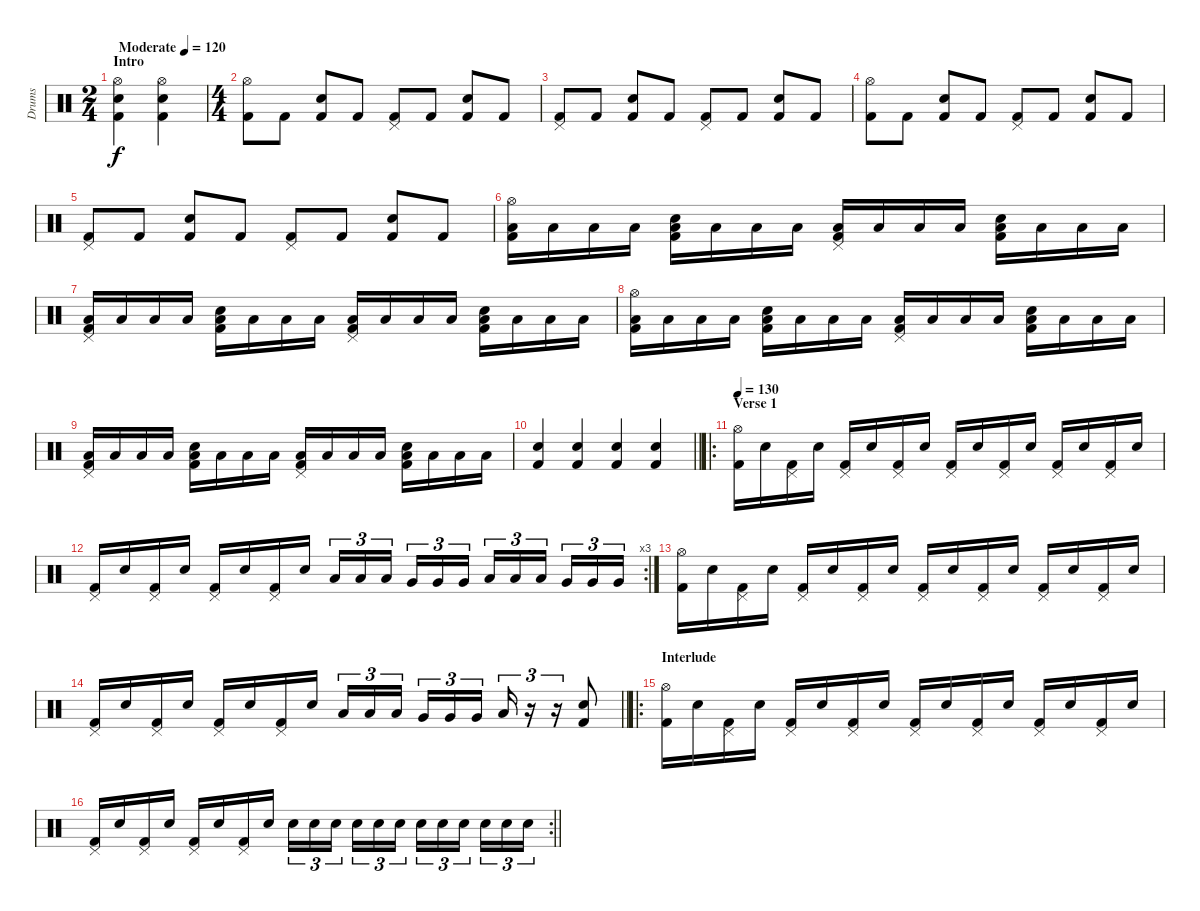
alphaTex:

\track ("Drums" "Drums") {instrument percussion}
\staff {score}
\articulation defaults
\ts (2 4)
\section ("" "Intro")
\tempo (120 "Moderate")
\clef neutral
\ks c
("Hi-Hat (open)" "Snare (hit) 2" "Kick (hit) 2").4{dy f} ("Hi-Hat (open)" "Snare (hit) 2" "Kick (hit) 2").4 |
\ts (4 4)
("Hi-Hat (open)" "Kick (hit) 2").8 "Kick (hit) 2".8 ("Snare (hit) 2" "Kick (hit) 2").8 "Kick (hit) 2".8 ("Pedal Hi-Hat (hit)" "Kick (hit) 2").8 "Kick (hit) 2".8 ("Snare (hit) 2" "Kick (hit) 2").8 "Kick (hit) 2".8 |
("Pedal Hi-Hat (hit)" "Kick (hit) 2").8 "Kick (hit) 2".8 ("Snare (hit) 2" "Kick (hit) 2").8 "Kick (hit) 2".8 ("Pedal Hi-Hat (hit)" "Kick (hit) 2").8 "Kick (hit) 2".8 ("Snare (hit) 2" "Kick (hit) 2").8 "Kick (hit) 2".8 |
("Hi-Hat (open)" "Kick (hit) 2").8 "Kick (hit) 2".8 ("Snare (hit) 2" "Kick (hit) 2").8 "Kick (hit) 2".8 ("Pedal Hi-Hat (hit)" "Kick (hit) 2").8 "Kick (hit) 2".8 ("Snare (hit) 2" "Kick (hit) 2").8 "Kick (hit) 2".8 |
("Pedal Hi-Hat (hit)" "Kick (hit) 2").8 "Kick (hit) 2".8 ("Snare (hit) 2" "Kick (hit) 2").8 "Kick (hit) 2".8 ("Pedal Hi-Hat (hit)" "Kick (hit) 2").8 "Kick (hit) 2".8 ("Snare (hit) 2" "Kick (hit) 2").8 "Kick (hit) 2".8 |
("Hi-Hat (open)" "Low Tom (hit)" "Kick (hit) 2").16 "Low Tom (hit)".16 "Low Tom (hit)".16 "Low Tom (hit)".16 ("Snare (hit) 2" "Low Tom (hit)" "Kick (hit) 2").16 "Low Tom (hit)".16 "Low Tom (hit)".16 "Low Tom (hit)".16 ("Pedal Hi-Hat (hit)" "Low Tom (hit)" "Kick (hit) 2").16 "Low Tom (hit)".16 "Low Tom (hit)".16 "Low Tom (hit)".16 ("Snare (hit) 2" "Low Tom (hit)" "Kick (hit) 2").16 "Low Tom (hit)".16 "Low Tom (hit)".16 "Low Tom (hit)".16 |
("Pedal Hi-Hat (hit)" "Low Tom (hit)" "Kick (hit) 2").16 "Low Tom (hit)".16 "Low Tom (hit)".16 "Low Tom (hit)".16 ("Snare (hit) 2" "Low Tom (hit)" "Kick (hit) 2").16 "Low Tom (hit)".16 "Low Tom (hit)".16 "Low Tom (hit)".16 ("Pedal Hi-Hat (hit)" "Low Tom (hit)" "Kick (hit) 2").16 "Low Tom (hit)".16 "Low Tom (hit)".16 "Low Tom (hit)".16 ("Snare (hit) 2" "Low Tom (hit)" "Kick (hit) 2").16 "Low Tom (hit)".16 "Low Tom (hit)".16 "Low Tom (hit)".16 |
("Hi-Hat (open)" "Low Tom (hit)" "Kick (hit) 2").16 "Low Tom (hit)".16 "Low Tom (hit)".16 "Low Tom (hit)".16 ("Snare (hit) 2" "Low Tom (hit)" "Kick (hit) 2").16 "Low Tom (hit)".16 "Low Tom (hit)".16 "Low Tom (hit)".16 ("Pedal Hi-Hat (hit)" "Low Tom (hit)" "Kick (hit) 2").16 "Low Tom (hit)".16 "Low Tom (hit)".16 "Low Tom (hit)".16 ("Snare (hit) 2" "Low Tom (hit)" "Kick (hit) 2").16 "Low Tom (hit)".16 "Low Tom (hit)".16 "Low Tom (hit)".16 |
("Pedal Hi-Hat (hit)" "Low Tom (hit)" "Kick (hit) 2").16 "Low Tom (hit)".16 "Low Tom (hit)".16 "Low Tom (hit)".16 ("Snare (hit) 2" "Low Tom (hit)" "Kick (hit) 2").16 "Low Tom (hit)".16 "Low Tom (hit)".16 "Low Tom (hit)".16 ("Pedal Hi-Hat (hit)" "Low Tom (hit)" "Kick (hit) 2").16 "Low Tom (hit)".16 "Low Tom (hit)".16 "Low Tom (hit)".16 ("Snare (hit) 2" "Low Tom (hit)" "Kick (hit) 2").16 "Low Tom (hit)".16 "Low Tom (hit)".16 "Low Tom (hit)".16 |
\barLineRight lightlight
("Snare (hit) 2" "Kick (hit) 2").4 ("Snare (hit) 2" "Kick (hit) 2").4 ("Snare (hit) 2" "Kick (hit) 2").4 ("Snare (hit) 2" "Kick (hit) 2").4 |
\ro
\section ("" "Verse 1")
\tempo 130
("Hi-Hat (open)" "Kick (hit) 2").16 "Snare (hit) 2".16 ("Pedal Hi-Hat (hit)" "Kick (hit) 2").16 "Snare (hit) 2".16 ("Pedal Hi-Hat (hit)" "Kick (hit) 2").16 "Snare (hit) 2".16 ("Pedal Hi-Hat (hit)" "Kick (hit) 2").16 "Snare (hit) 2".16 ("Pedal Hi-Hat (hit)" "Kick (hit) 2").16 "Snare (hit) 2".16 ("Pedal Hi-Hat (hit)" "Kick (hit) 2").16 "Snare (hit) 2".16 ("Pedal Hi-Hat (hit)" "Kick (hit) 2").16 "Snare (hit) 2".16 ("Pedal Hi-Hat (hit)" "Kick (hit) 2").16 "Snare (hit) 2".16 |
\rc 3
("Pedal Hi-Hat (hit)" "Kick (hit) 2").16 "Snare (hit) 2".16 ("Pedal Hi-Hat (hit)" "Kick (hit) 2").16 "Snare (hit) 2".16 ("Pedal Hi-Hat (hit)" "Kick (hit) 2").16 "Snare (hit) 2".16 ("Pedal Hi-Hat (hit)" "Kick (hit) 2").16 "Snare (hit) 2".16 "Low Tom (hit)".16{tu (3 2)} "Low Tom (hit)".16{tu (3 2)} "Low Tom (hit)".16{tu (3 2) beam splitsecondary} "Very Low Tom (hit)".16{tu (3 2)} "Very Low Tom (hit)".16{tu (3 2)} "Very Low Tom (hit)".16{tu (3 2)} "Low Floor Tom (hit)".16{tu (3 2)} "Low Floor Tom (hit)".16{tu (3 2)} "Low Floor Tom (hit)".16{tu (3 2) beam splitsecondary} "Very Low Tom (hit)".16{tu (3 2)} "Very Low Tom (hit)".16{tu (3 2)} "Very Low Tom (hit)".16{tu (3 2)} |
("Hi-Hat (open)" "Kick (hit) 2").16 "Snare (hit) 2".16 ("Pedal Hi-Hat (hit)" "Kick (hit) 2").16 "Snare (hit) 2".16 ("Pedal Hi-Hat (hit)" "Kick (hit) 2").16 "Snare (hit) 2".16 ("Pedal Hi-Hat (hit)" "Kick (hit) 2").16 "Snare (hit) 2".16 ("Pedal Hi-Hat (hit)" "Kick (hit) 2").16 "Snare (hit) 2".16 ("Pedal Hi-Hat (hit)" "Kick (hit) 2").16 "Snare (hit) 2".16 ("Pedal Hi-Hat (hit)" "Kick (hit) 2").16 "Snare (hit) 2".16 ("Pedal Hi-Hat (hit)" "Kick (hit) 2").16 "Snare (hit) 2".16 |
\barLineRight lightlight
("Pedal Hi-Hat (hit)" "Kick (hit) 2").16 "Snare (hit) 2".16 ("Pedal Hi-Hat (hit)" "Kick (hit) 2").16 "Snare (hit) 2".16 ("Pedal Hi-Hat (hit)" "Kick (hit) 2").16 "Snare (hit) 2".16 ("Pedal Hi-Hat (hit)" "Kick (hit) 2").16 "Snare (hit) 2".16 "Low Tom (hit)".16{tu (3 2)} "Low Tom (hit)".16{tu (3 2)} "Low Tom (hit)".16{tu (3 2) beam splitsecondary} "Very Low Tom (hit)".16{tu (3 2)} "Very Low Tom (hit)".16{tu (3 2)} "Very Low Tom (hit)".16{tu (3 2)} "Low Floor Tom (hit)".16{tu (3 2)} r.16{tu (3 2)} r.16{tu (3 2)} ("Snare (hit) 2" "Kick (hit) 2").8 |
\ro
\section ("" "Interlude")
("Hi-Hat (open)" "Kick (hit) 2").16 "Snare (hit) 2".16 ("Pedal Hi-Hat (hit)" "Kick (hit) 2").16 "Snare (hit) 2".16 ("Pedal Hi-Hat (hit)" "Kick (hit) 2").16 "Snare (hit) 2".16 ("Pedal Hi-Hat (hit)" "Kick (hit) 2").16 "Snare (hit) 2".16 ("Pedal Hi-Hat (hit)" "Kick (hit) 2").16 "Snare (hit) 2".16 ("Pedal Hi-Hat (hit)" "Kick (hit) 2").16 "Snare (hit) 2".16 ("Pedal Hi-Hat (hit)" "Kick (hit) 2").16 "Snare (hit) 2".16 ("Pedal Hi-Hat (hit)" "Kick (hit) 2").16 "Snare (hit) 2".16 |
\rc 2
\barLineRight lightlight
("Pedal Hi-Hat (hit)" "Kick (hit) 2").16 "Snare (hit) 2".16 ("Pedal Hi-Hat (hit)" "Kick (hit) 2").16 "Snare (hit) 2".16 ("Pedal Hi-Hat (hit)" "Kick (hit) 2").16 "Snare (hit) 2".16 ("Pedal Hi-Hat (hit)" "Kick (hit) 2").16 "Snare (hit) 2".16 "Snare (hit) 2".16{tu (3 2)} "Snare (hit) 2".16{tu (3 2)} "Snare (hit) 2".16{tu (3 2) beam splitsecondary} "Snare (hit) 2".16{tu (3 2)} "Snare (hit) 2".16{tu (3 2)} "Snare (hit) 2".16{tu (3 2)} "Snare (hit) 2".16{tu (3 2)} "Snare (hit) 2".16{tu (3 2)} "Snare (hit) 2".16{tu (3 2) beam splitsecondary} "Snare (hit) 2".16{tu (3 2)} "Snare (hit) 2".16{tu (3 2)} "Snare (hit) 2".16{tu (3 2)}
